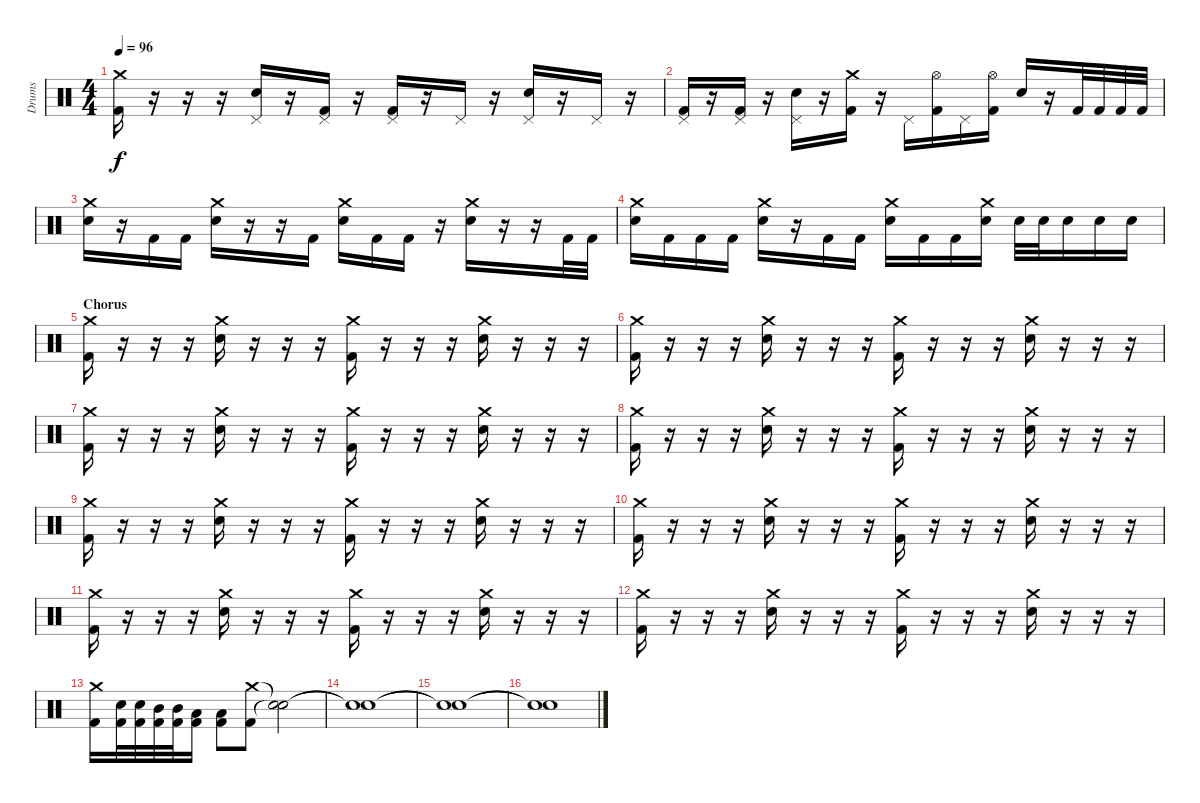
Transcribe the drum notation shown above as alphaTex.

\track ("Drums" "Drums") {instrument percussion}
\staff {score}
\articulation defaults
\ts (4 4)
\tempo 96
\clef neutral
\ks c
("Crash medium (hit)" "Kick (hit) 2").16{dy f} r.16 r.16 r.16 ("Pedal Hi-Hat (hit)" "Electric Snare (hit)").16 r.16 ("Pedal Hi-Hat (hit)" "Kick (hit) 2").16 r.16 ("Pedal Hi-Hat (hit)" "Kick (hit) 2").16 r.16 "Pedal Hi-Hat (hit)".16 r.16 ("Pedal Hi-Hat (hit)" "Electric Snare (hit)").16 r.16 "Pedal Hi-Hat (hit)".16 r.16 |
("Pedal Hi-Hat (hit)" "Kick (hit) 2").16 r.16 ("Pedal Hi-Hat (hit)" "Kick (hit) 2").16 r.16 ("Pedal Hi-Hat (hit)" "Electric Snare (hit)").16 r.16 ("Crash medium (hit)" "Kick (hit) 2").16 r.16 "Pedal Hi-Hat (hit)".16 ("Hi-Hat (open)" "Kick (hit) 2").16 "Pedal Hi-Hat (hit)".16 ("Hi-Hat (open)" "Kick (hit) 2").16 "Electric Snare (hit)".16 r.16 "Kick (hit) 2".32 "Kick (hit) 2".32 "Kick (hit) 2".32 "Kick (hit) 2".32 |
("Crash medium (hit)" "Electric Snare (hit)").16 r.16 "Kick (hit) 2".16 "Kick (hit) 2".16 ("Crash medium (hit)" "Electric Snare (hit)").16 r.16 r.16 "Kick (hit) 2".16 ("Crash medium (hit)" "Electric Snare (hit)").16 "Kick (hit) 2".16 "Kick (hit) 2".16 r.16 ("Crash medium (hit)" "Electric Snare (hit)").16 r.16 r.16 "Kick (hit) 2".32 "Kick (hit) 2".32 |
("Crash medium (hit)" "Electric Snare (hit)").16 "Kick (hit) 2".16 "Kick (hit) 2".16 "Kick (hit) 2".16 ("Crash medium (hit)" "Electric Snare (hit)").16 r.16 "Kick (hit) 2".16 "Kick (hit) 2".16 ("Crash medium (hit)" "Electric Snare (hit)").16 "Kick (hit) 2".16 "Kick (hit) 2".16 ("Crash medium (hit)" "Electric Snare (hit)").16 "Electric Snare (hit)".32 "Electric Snare (hit)".32 "Electric Snare (hit)".16 "Electric Snare (hit)".16 "Electric Snare (hit)".16 |
\section ("" "Chorus")
("Crash medium (hit)" "Kick (hit) 2").16 r.16 r.16 r.16 ("Crash medium (hit)" "Electric Snare (hit)").16 r.16 r.16 r.16 ("Crash medium (hit)" "Kick (hit) 2").16 r.16 r.16 r.16 ("Crash medium (hit)" "Electric Snare (hit)").16 r.16 r.16 r.16 |
("Crash medium (hit)" "Kick (hit) 2").16 r.16 r.16 r.16 ("Crash medium (hit)" "Electric Snare (hit)").16 r.16 r.16 r.16 ("Crash medium (hit)" "Kick (hit) 2").16 r.16 r.16 r.16 ("Crash medium (hit)" "Electric Snare (hit)").16 r.16 r.16 r.16 |
("Crash medium (hit)" "Kick (hit) 2").16 r.16 r.16 r.16 ("Crash medium (hit)" "Electric Snare (hit)").16 r.16 r.16 r.16 ("Crash medium (hit)" "Kick (hit) 2").16 r.16 r.16 r.16 ("Crash medium (hit)" "Electric Snare (hit)").16 r.16 r.16 r.16 |
("Crash medium (hit)" "Kick (hit) 2").16 r.16 r.16 r.16 ("Crash medium (hit)" "Electric Snare (hit)").16 r.16 r.16 r.16 ("Crash medium (hit)" "Kick (hit) 2").16 r.16 r.16 r.16 ("Crash medium (hit)" "Electric Snare (hit)").16 r.16 r.16 r.16 |
("Crash medium (hit)" "Kick (hit) 2").16 r.16 r.16 r.16 ("Crash medium (hit)" "Electric Snare (hit)").16 r.16 r.16 r.16 ("Crash medium (hit)" "Kick (hit) 2").16 r.16 r.16 r.16 ("Crash medium (hit)" "Electric Snare (hit)").16 r.16 r.16 r.16 |
("Crash medium (hit)" "Kick (hit) 2").16 r.16 r.16 r.16 ("Crash medium (hit)" "Electric Snare (hit)").16 r.16 r.16 r.16 ("Crash medium (hit)" "Kick (hit) 2").16 r.16 r.16 r.16 ("Crash medium (hit)" "Electric Snare (hit)").16 r.16 r.16 r.16 |
("Crash medium (hit)" "Kick (hit) 2").16 r.16 r.16 r.16 ("Crash medium (hit)" "Electric Snare (hit)").16 r.16 r.16 r.16 ("Crash medium (hit)" "Kick (hit) 2").16 r.16 r.16 r.16 ("Crash medium (hit)" "Electric Snare (hit)").16 r.16 r.16 r.16 |
("Crash medium (hit)" "Kick (hit) 2").16 r.16 r.16 r.16 ("Crash medium (hit)" "Electric Snare (hit)").16 r.16 r.16 r.16 ("Crash medium (hit)" "Kick (hit) 2").16 r.16 r.16 r.16 ("Crash medium (hit)" "Electric Snare (hit)").16 r.16 r.16 r.16 |
\section ("" "")
("Crash medium (hit)" "Kick (hit) 2").16 ("Electric Snare (hit)" "Kick (hit) 2").32 ("Electric Snare (hit)" "Kick (hit) 2").32 ("Mid Tom (hit)" "Kick (hit) 2").32 ("Mid Tom (hit)" "Kick (hit) 2").32 ("Low Tom (hit)" "Kick (hit) 2").16 ("Low Tom (hit)" "Kick (hit) 2").8 ("Crash medium (hit)" "Kick (hit) 2").8 ("Snare (hit)"{t} "Snare (hit)"{t}).2 |
("Snare (hit)"{t} "Snare (hit)"{t}).1 |
("Snare (hit)"{t} "Snare (hit)"{t}).1 |
("Snare (hit)"{t} "Snare (hit)"{t}).1
